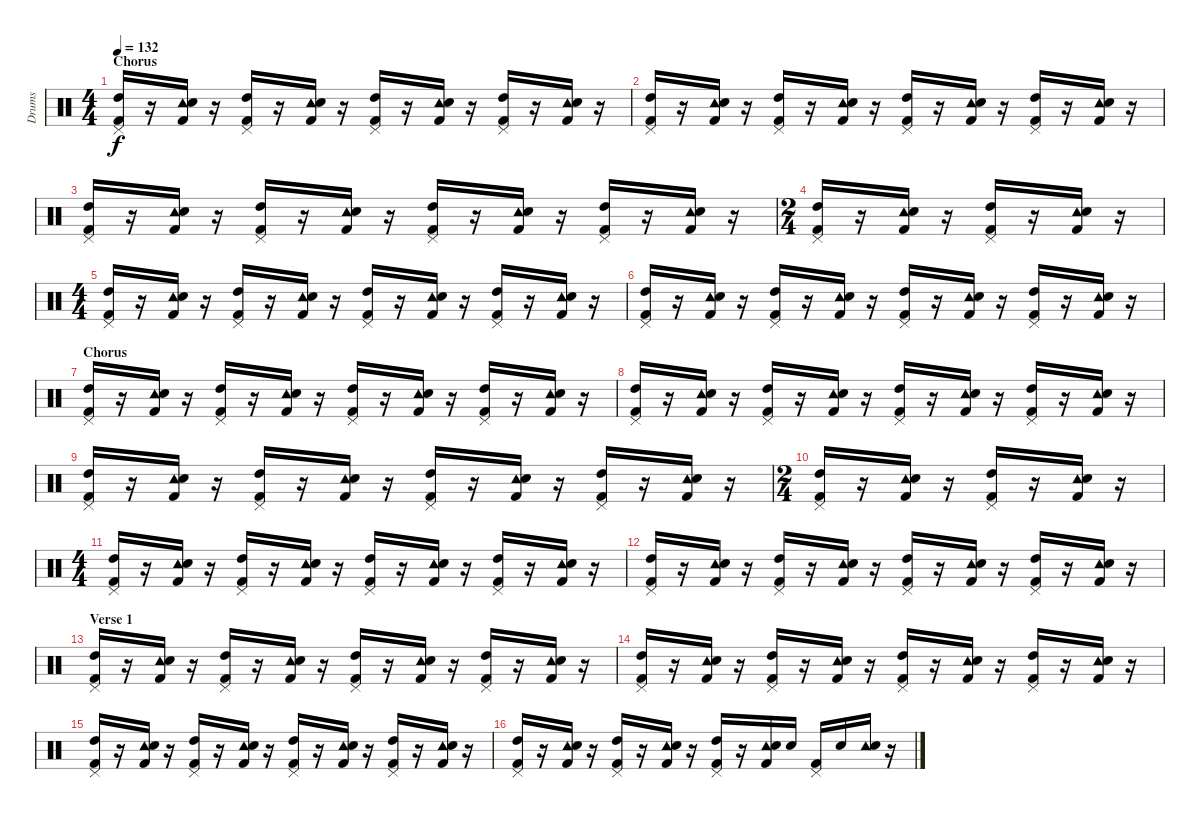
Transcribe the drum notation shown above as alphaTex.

\track ("Drums" "Drums") {instrument percussion}
\staff {score}
\articulation defaults
\ts (4 4)
\section ("" "Chorus")
\tempo 132
\clef neutral
\ks c
("Pedal Hi-Hat (hit)" "Kick (hit) 2" "High Tom (hit)").16{dy f} r.16 ("Tambourine (hit)" "Kick (hit) 2" "Snare (hit) 2").16 r.16 ("Pedal Hi-Hat (hit)" "Kick (hit) 2" "High Tom (hit)").16 r.16 ("Tambourine (hit)" "Kick (hit) 2" "Snare (hit) 2").16 r.16 ("Pedal Hi-Hat (hit)" "Kick (hit) 2" "High Tom (hit)").16 r.16 ("Tambourine (hit)" "Kick (hit) 2" "Snare (hit) 2").16 r.16 ("Pedal Hi-Hat (hit)" "Kick (hit) 2" "High Tom (hit)").16 r.16 ("Tambourine (hit)" "Kick (hit) 2" "Snare (hit) 2").16 r.16 |
("Pedal Hi-Hat (hit)" "Kick (hit) 2" "High Tom (hit)").16 r.16 ("Tambourine (hit)" "Kick (hit) 2" "Snare (hit) 2").16 r.16 ("Pedal Hi-Hat (hit)" "Kick (hit) 2" "High Tom (hit)").16 r.16 ("Tambourine (hit)" "Kick (hit) 2" "Snare (hit) 2").16 r.16 ("Pedal Hi-Hat (hit)" "Kick (hit) 2" "High Tom (hit)").16 r.16 ("Tambourine (hit)" "Kick (hit) 2" "Snare (hit) 2").16 r.16 ("Pedal Hi-Hat (hit)" "Kick (hit) 2" "High Tom (hit)").16 r.16 ("Tambourine (hit)" "Kick (hit) 2" "Snare (hit) 2").16 r.16 |
("Pedal Hi-Hat (hit)" "Kick (hit) 2" "High Tom (hit)").16 r.16 ("Tambourine (hit)" "Kick (hit) 2" "Snare (hit) 2").16 r.16 ("Pedal Hi-Hat (hit)" "Kick (hit) 2" "High Tom (hit)").16 r.16 ("Tambourine (hit)" "Kick (hit) 2" "Snare (hit) 2").16 r.16 ("Pedal Hi-Hat (hit)" "Kick (hit) 2" "High Tom (hit)").16 r.16 ("Tambourine (hit)" "Kick (hit) 2" "Snare (hit) 2").16 r.16 ("Pedal Hi-Hat (hit)" "Kick (hit) 2" "High Tom (hit)").16 r.16 ("Tambourine (hit)" "Kick (hit) 2" "Snare (hit) 2").16 r.16 |
\ts (2 4)
("Pedal Hi-Hat (hit)" "Kick (hit) 2" "High Tom (hit)").16 r.16 ("Tambourine (hit)" "Kick (hit) 2" "Snare (hit) 2").16 r.16 ("Pedal Hi-Hat (hit)" "Kick (hit) 2" "High Tom (hit)").16 r.16 ("Tambourine (hit)" "Kick (hit) 2" "Snare (hit) 2").16 r.16 |
\ts (4 4)
("Pedal Hi-Hat (hit)" "Kick (hit) 2" "High Tom (hit)").16 r.16 ("Tambourine (hit)" "Kick (hit) 2" "Snare (hit) 2").16 r.16 ("Pedal Hi-Hat (hit)" "Kick (hit) 2" "High Tom (hit)").16 r.16 ("Tambourine (hit)" "Kick (hit) 2" "Snare (hit) 2").16 r.16 ("Pedal Hi-Hat (hit)" "Kick (hit) 2" "High Tom (hit)").16 r.16 ("Tambourine (hit)" "Kick (hit) 2" "Snare (hit) 2").16 r.16 ("Pedal Hi-Hat (hit)" "Kick (hit) 2" "High Tom (hit)").16 r.16 ("Tambourine (hit)" "Kick (hit) 2" "Snare (hit) 2").16 r.16 |
("Pedal Hi-Hat (hit)" "Kick (hit) 2" "High Tom (hit)").16 r.16 ("Tambourine (hit)" "Kick (hit) 2" "Snare (hit) 2").16 r.16 ("Pedal Hi-Hat (hit)" "Kick (hit) 2" "High Tom (hit)").16 r.16 ("Tambourine (hit)" "Kick (hit) 2" "Snare (hit) 2").16 r.16 ("Pedal Hi-Hat (hit)" "Kick (hit) 2" "High Tom (hit)").16 r.16 ("Tambourine (hit)" "Kick (hit) 2" "Snare (hit) 2").16 r.16 ("Pedal Hi-Hat (hit)" "Kick (hit) 2" "High Tom (hit)").16 r.16 ("Tambourine (hit)" "Kick (hit) 2" "Snare (hit) 2").16 r.16 |
\section ("" "Chorus")
("Pedal Hi-Hat (hit)" "Kick (hit) 2" "High Tom (hit)").16 r.16 ("Tambourine (hit)" "Kick (hit) 2" "Snare (hit) 2").16 r.16 ("Pedal Hi-Hat (hit)" "Kick (hit) 2" "High Tom (hit)").16 r.16 ("Tambourine (hit)" "Kick (hit) 2" "Snare (hit) 2").16 r.16 ("Pedal Hi-Hat (hit)" "Kick (hit) 2" "High Tom (hit)").16 r.16 ("Tambourine (hit)" "Kick (hit) 2" "Snare (hit) 2").16 r.16 ("Pedal Hi-Hat (hit)" "Kick (hit) 2" "High Tom (hit)").16 r.16 ("Tambourine (hit)" "Kick (hit) 2" "Snare (hit) 2").16 r.16 |
("Pedal Hi-Hat (hit)" "Kick (hit) 2" "High Tom (hit)").16 r.16 ("Tambourine (hit)" "Kick (hit) 2" "Snare (hit) 2").16 r.16 ("Pedal Hi-Hat (hit)" "Kick (hit) 2" "High Tom (hit)").16 r.16 ("Tambourine (hit)" "Kick (hit) 2" "Snare (hit) 2").16 r.16 ("Pedal Hi-Hat (hit)" "Kick (hit) 2" "High Tom (hit)").16 r.16 ("Tambourine (hit)" "Kick (hit) 2" "Snare (hit) 2").16 r.16 ("Pedal Hi-Hat (hit)" "Kick (hit) 2" "High Tom (hit)").16 r.16 ("Tambourine (hit)" "Kick (hit) 2" "Snare (hit) 2").16 r.16 |
("Pedal Hi-Hat (hit)" "Kick (hit) 2" "High Tom (hit)").16 r.16 ("Tambourine (hit)" "Kick (hit) 2" "Snare (hit) 2").16 r.16 ("Pedal Hi-Hat (hit)" "Kick (hit) 2" "High Tom (hit)").16 r.16 ("Tambourine (hit)" "Kick (hit) 2" "Snare (hit) 2").16 r.16 ("Pedal Hi-Hat (hit)" "Kick (hit) 2" "High Tom (hit)").16 r.16 ("Tambourine (hit)" "Kick (hit) 2" "Snare (hit) 2").16 r.16 ("Pedal Hi-Hat (hit)" "Kick (hit) 2" "High Tom (hit)").16 r.16 ("Tambourine (hit)" "Kick (hit) 2" "Snare (hit) 2").16 r.16 |
\ts (2 4)
("Pedal Hi-Hat (hit)" "Kick (hit) 2" "High Tom (hit)").16 r.16 ("Tambourine (hit)" "Kick (hit) 2" "Snare (hit) 2").16 r.16 ("Pedal Hi-Hat (hit)" "Kick (hit) 2" "High Tom (hit)").16 r.16 ("Tambourine (hit)" "Kick (hit) 2" "Snare (hit) 2").16 r.16 |
\ts (4 4)
("Pedal Hi-Hat (hit)" "Kick (hit) 2" "High Tom (hit)").16 r.16 ("Tambourine (hit)" "Kick (hit) 2" "Snare (hit) 2").16 r.16 ("Pedal Hi-Hat (hit)" "Kick (hit) 2" "High Tom (hit)").16 r.16 ("Tambourine (hit)" "Kick (hit) 2" "Snare (hit) 2").16 r.16 ("Pedal Hi-Hat (hit)" "Kick (hit) 2" "High Tom (hit)").16 r.16 ("Tambourine (hit)" "Kick (hit) 2" "Snare (hit) 2").16 r.16 ("Pedal Hi-Hat (hit)" "Kick (hit) 2" "High Tom (hit)").16 r.16 ("Tambourine (hit)" "Kick (hit) 2" "Snare (hit) 2").16 r.16 |
("Pedal Hi-Hat (hit)" "Kick (hit) 2" "High Tom (hit)").16 r.16 ("Tambourine (hit)" "Kick (hit) 2" "Snare (hit) 2").16 r.16 ("Pedal Hi-Hat (hit)" "Kick (hit) 2" "High Tom (hit)").16 r.16 ("Tambourine (hit)" "Kick (hit) 2" "Snare (hit) 2").16 r.16 ("Pedal Hi-Hat (hit)" "Kick (hit) 2" "High Tom (hit)").16 r.16 ("Tambourine (hit)" "Kick (hit) 2" "Snare (hit) 2").16 r.16 ("Pedal Hi-Hat (hit)" "Kick (hit) 2" "High Tom (hit)").16 r.16 ("Tambourine (hit)" "Kick (hit) 2" "Snare (hit) 2").16 r.16 |
\section ("" "Verse 1")
("Pedal Hi-Hat (hit)" "Kick (hit) 2" "High Tom (hit)").16 r.16 ("Tambourine (hit)" "Kick (hit) 2" "Snare (hit) 2").16 r.16 ("Pedal Hi-Hat (hit)" "Kick (hit) 2" "High Tom (hit)").16 r.16 ("Tambourine (hit)" "Kick (hit) 2" "Snare (hit) 2").16 r.16 ("Pedal Hi-Hat (hit)" "Kick (hit) 2" "High Tom (hit)").16 r.16 ("Tambourine (hit)" "Kick (hit) 2" "Snare (hit) 2").16 r.16 ("Pedal Hi-Hat (hit)" "Kick (hit) 2" "High Tom (hit)").16 r.16 ("Tambourine (hit)" "Kick (hit) 2" "Snare (hit) 2").16 r.16 |
("Pedal Hi-Hat (hit)" "Kick (hit) 2" "High Tom (hit)").16 r.16 ("Tambourine (hit)" "Kick (hit) 2" "Snare (hit) 2").16 r.16 ("Pedal Hi-Hat (hit)" "Kick (hit) 2" "High Tom (hit)").16 r.16 ("Tambourine (hit)" "Kick (hit) 2" "Snare (hit) 2").16 r.16 ("Pedal Hi-Hat (hit)" "Kick (hit) 2" "High Tom (hit)").16 r.16 ("Tambourine (hit)" "Kick (hit) 2" "Snare (hit) 2").16 r.16 ("Pedal Hi-Hat (hit)" "Kick (hit) 2" "High Tom (hit)").16 r.16 ("Tambourine (hit)" "Kick (hit) 2" "Snare (hit) 2").16 r.16 |
("Pedal Hi-Hat (hit)" "Kick (hit) 2" "High Tom (hit)").16 r.16 ("Tambourine (hit)" "Kick (hit) 2" "Snare (hit) 2").16 r.16 ("Pedal Hi-Hat (hit)" "Kick (hit) 2" "High Tom (hit)").16 r.16 ("Tambourine (hit)" "Kick (hit) 2" "Snare (hit) 2").16 r.16 ("Pedal Hi-Hat (hit)" "Kick (hit) 2" "High Tom (hit)").16 r.16 ("Tambourine (hit)" "Kick (hit) 2" "Snare (hit) 2").16 r.16 ("Pedal Hi-Hat (hit)" "Kick (hit) 2" "High Tom (hit)").16 r.16 ("Tambourine (hit)" "Kick (hit) 2" "Snare (hit) 2").16 r.16 |
("Pedal Hi-Hat (hit)" "Kick (hit) 2" "High Tom (hit)").16 r.16 ("Tambourine (hit)" "Kick (hit) 2" "Snare (hit) 2").16 r.16 ("Pedal Hi-Hat (hit)" "Kick (hit) 2" "High Tom (hit)").16 r.16 ("Tambourine (hit)" "Kick (hit) 2" "Snare (hit) 2").16 r.16 ("Pedal Hi-Hat (hit)" "Kick (hit) 2" "High Tom (hit)").16 r.16 ("Tambourine (hit)" "Kick (hit) 2" "Snare (hit) 2").16 "Snare (hit) 2".16 ("Pedal Hi-Hat (hit)" "Kick (hit) 2").16 "Snare (hit) 2".16 ("Tambourine (hit)" "Snare (hit) 2").16 r.16
